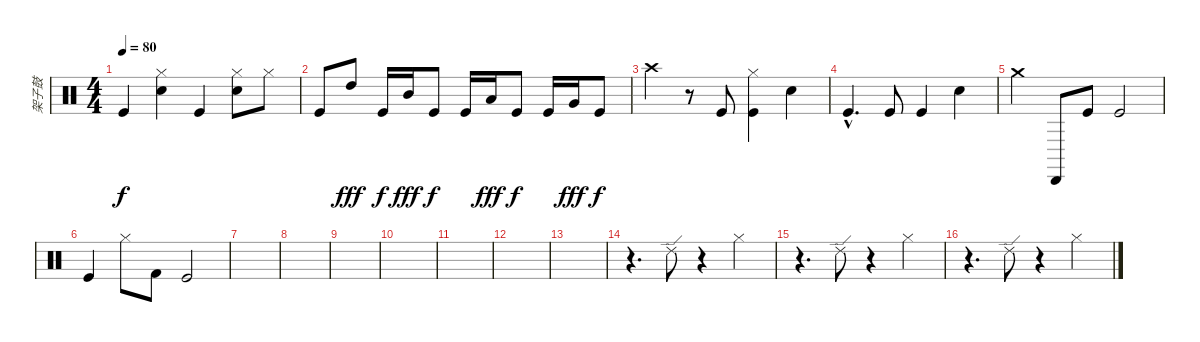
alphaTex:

\track ("架子鼓" "架子鼓") {instrument percussion}
\staff {score}
\articulation defaults
\ts (4 4)
\tempo 80
\clef neutral
\ks c "Kick (hit)".4{dy f}
("Hi-Hat (closed)" "Snare (hit) 2").4 "Kick (hit)".4 ("Hi-Hat (closed)" "Snare (hit) 2").8 "Hi-Hat (closed)".8 |
"Kick (hit)".8{volume 16} "High Tom (hit)".8{dy fff} "Kick (hit)".16{dy f} "Mid Tom (hit)".16{dy fff} "Kick (hit)".8{dy f} "Kick (hit)".16 "Low Tom (hit)".16{dy fff} "Kick (hit)".8{dy f} "Kick (hit)".16 "Very Low Tom (hit)".16{dy fff} "Kick (hit)".8{dy f} |
"Crash high (hit)".4 r.8 "Kick (hit)".8{volume 12} ("Hi-Hat (closed)" "Kick (hit)").4 "Snare (hit)".4 |
"Kick (hit)"{hac}.4{d} "Kick (hit)".8 "Kick (hit)".4 "Snare (hit)".4 |
"Crash medium (hit)".4 "Cabasa (hit)".8 "Kick (hit)".8 "Kick (hit)".2 |
"Kick (hit)".4 "Hi-Hat (closed)".8 "Kick (hit) 2".8 "Kick (hit)".2 |
|
|
|
|
|
|
|
r.4{d} "Ride (edge) 2".8 r.4 "Hi-Hat (closed)".4{balance 16} |
r.4{d} "Ride (edge) 2".8 r.4 "Hi-Hat (closed)".4{balance 16} |
r.4{d} "Ride (edge) 2".8{balance 8} r.4 "Hi-Hat (closed)".4{balance 16}
